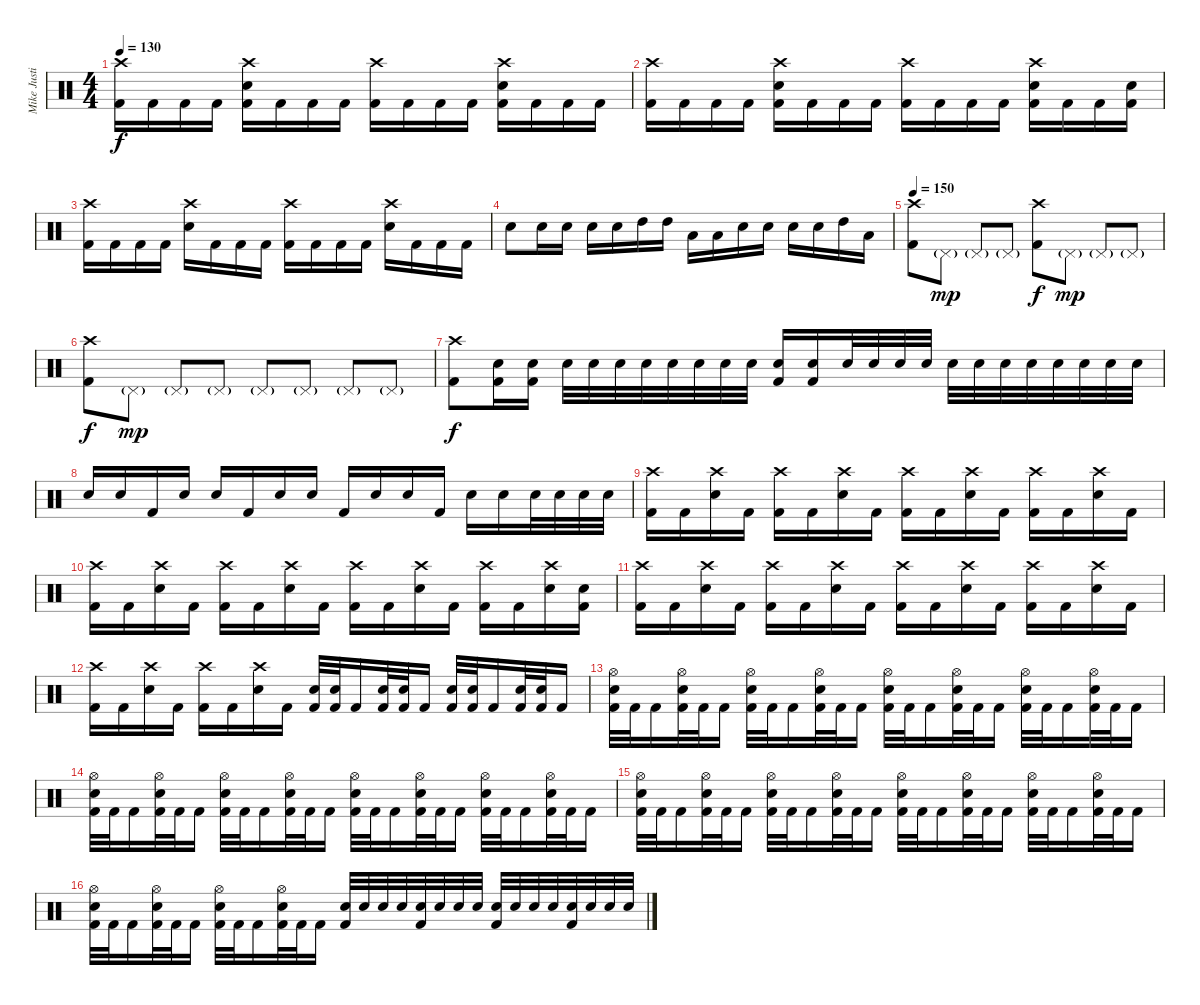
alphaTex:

\track ("Mike Justian" "Mike Justi") {instrument percussion}
\staff {score}
\articulation defaults
\ts (4 4)
\tempo 130
\clef neutral
\ks c
("Crash high (hit)" "Kick (hit) 2").16{dy f} "Kick (hit) 2".16 "Kick (hit) 2".16 "Kick (hit) 2".16 ("Crash high (hit)" "Electric Snare (hit)" "Kick (hit) 2").16 "Kick (hit) 2".16 "Kick (hit) 2".16 "Kick (hit) 2".16 ("Crash high (hit)" "Kick (hit) 2").16 "Kick (hit) 2".16 "Kick (hit) 2".16 "Kick (hit) 2".16 ("Crash high (hit)" "Electric Snare (hit)" "Kick (hit) 2").16 "Kick (hit) 2".16 "Kick (hit) 2".16 "Kick (hit) 2".16 |
("Crash high (hit)" "Kick (hit) 2").16 "Kick (hit) 2".16 "Kick (hit) 2".16 "Kick (hit) 2".16 ("Crash high (hit)" "Electric Snare (hit)" "Kick (hit) 2").16 "Kick (hit) 2".16 "Kick (hit) 2".16 "Kick (hit) 2".16 ("Crash high (hit)" "Kick (hit) 2").16 "Kick (hit) 2".16 "Kick (hit) 2".16 "Kick (hit) 2".16 ("Crash high (hit)" "Electric Snare (hit)" "Kick (hit) 2").16 "Kick (hit) 2".16 "Kick (hit) 2".16 ("Electric Snare (hit)" "Kick (hit) 2").16 |
("Crash high (hit)" "Kick (hit) 2").16 "Kick (hit) 2".16 "Kick (hit) 2".16 "Kick (hit) 2".16 ("Crash high (hit)" "Electric Snare (hit)").16 "Kick (hit) 2".16 "Kick (hit) 2".16 "Kick (hit) 2".16 ("Crash high (hit)" "Kick (hit) 2").16 "Kick (hit) 2".16 "Kick (hit) 2".16 "Kick (hit) 2".16 ("Crash high (hit)" "Electric Snare (hit)").16 "Kick (hit) 2".16 "Kick (hit) 2".16 "Kick (hit) 2".16 |
"Electric Snare (hit)".8 "Electric Snare (hit)".16 "Electric Snare (hit)".16 "Electric Snare (hit)".16 "Electric Snare (hit)".16 "High Tom (hit)".16 "High Tom (hit)".16 "Low Tom (hit)".16 "Low Tom (hit)".16 "Electric Snare (hit)".16 "Electric Snare (hit)".16 "Electric Snare (hit)".16 "Electric Snare (hit)".16 "High Tom (hit)".16 "Low Tom (hit)".16 |
\tempo 150
("Crash high (hit)" "Kick (hit) 2").8 "Pedal Hi-Hat (hit)"{g}.8{dy mp} "Pedal Hi-Hat (hit)"{g}.8 "Pedal Hi-Hat (hit)"{g}.8 ("Crash high (hit)" "Kick (hit) 2").8{dy f} "Pedal Hi-Hat (hit)"{g}.8{dy mp} "Pedal Hi-Hat (hit)"{g}.8 "Pedal Hi-Hat (hit)"{g}.8 |
("Crash high (hit)" "Kick (hit) 2").8{dy f} "Pedal Hi-Hat (hit)"{g}.8{dy mp} "Pedal Hi-Hat (hit)"{g}.8 "Pedal Hi-Hat (hit)"{g}.8 "Pedal Hi-Hat (hit)"{g}.8 "Pedal Hi-Hat (hit)"{g}.8 "Pedal Hi-Hat (hit)"{g}.8 "Pedal Hi-Hat (hit)"{g}.8 |
("Crash high (hit)" "Kick (hit) 2").8{dy f} ("Electric Snare (hit)" "Kick (hit) 2").16 ("Electric Snare (hit)" "Kick (hit) 2").16 "Electric Snare (hit)".32 "Electric Snare (hit)".32 "Electric Snare (hit)".32 "Electric Snare (hit)".32 "Electric Snare (hit)".32 "Electric Snare (hit)".32 "Electric Snare (hit)".32 "Electric Snare (hit)".32 ("Electric Snare (hit)" "Kick (hit) 2").16 ("Electric Snare (hit)" "Kick (hit) 2").16 "Electric Snare (hit)".32 "Electric Snare (hit)".32 "Electric Snare (hit)".32 "Electric Snare (hit)".32 "Electric Snare (hit)".32 "Electric Snare (hit)".32 "Electric Snare (hit)".32 "Electric Snare (hit)".32 "Electric Snare (hit)".32 "Electric Snare (hit)".32 "Electric Snare (hit)".32 "Electric Snare (hit)".32 |
"Electric Snare (hit)".16 "Electric Snare (hit)".16 "Kick (hit) 2".16 "Electric Snare (hit)".16 "Electric Snare (hit)".16 "Kick (hit) 2".16 "Electric Snare (hit)".16 "Electric Snare (hit)".16 "Kick (hit) 2".16 "Electric Snare (hit)".16 "Electric Snare (hit)".16 "Kick (hit) 2".16 "Electric Snare (hit)".16 "Electric Snare (hit)".16 "Electric Snare (hit)".32 "Electric Snare (hit)".32 "Electric Snare (hit)".32 "Electric Snare (hit)".32 |
("Crash high (hit)" "Kick (hit) 2").16 "Kick (hit) 2".16 ("Crash high (hit)" "Electric Snare (hit)").16 "Kick (hit) 2".16 ("Crash high (hit)" "Kick (hit) 2").16 "Kick (hit) 2".16 ("Crash high (hit)" "Electric Snare (hit)").16 "Kick (hit) 2".16 ("Crash high (hit)" "Kick (hit) 2").16 "Kick (hit) 2".16 ("Crash high (hit)" "Electric Snare (hit)").16 "Kick (hit) 2".16 ("Crash high (hit)" "Kick (hit) 2").16 "Kick (hit) 2".16 ("Crash high (hit)" "Electric Snare (hit)").16 "Kick (hit) 2".16 |
("Crash high (hit)" "Kick (hit) 2").16 "Kick (hit) 2".16 ("Crash high (hit)" "Electric Snare (hit)").16 "Kick (hit) 2".16 ("Crash high (hit)" "Kick (hit) 2").16 "Kick (hit) 2".16 ("Crash high (hit)" "Electric Snare (hit)").16 "Kick (hit) 2".16 ("Crash high (hit)" "Kick (hit) 2").16 "Kick (hit) 2".16 ("Crash high (hit)" "Electric Snare (hit)").16 "Kick (hit) 2".16 ("Crash high (hit)" "Kick (hit) 2").16 "Kick (hit) 2".16 ("Crash high (hit)" "Electric Snare (hit)").16 ("Electric Snare (hit)" "Kick (hit) 2").16 |
("Crash high (hit)" "Kick (hit) 2").16 "Kick (hit) 2".16 ("Crash high (hit)" "Electric Snare (hit)").16 "Kick (hit) 2".16 ("Crash high (hit)" "Kick (hit) 2").16 "Kick (hit) 2".16 ("Crash high (hit)" "Electric Snare (hit)").16 "Kick (hit) 2".16 ("Crash high (hit)" "Kick (hit) 2").16 "Kick (hit) 2".16 ("Crash high (hit)" "Electric Snare (hit)").16 "Kick (hit) 2".16 ("Crash high (hit)" "Kick (hit) 2").16 "Kick (hit) 2".16 ("Crash high (hit)" "Electric Snare (hit)").16 "Kick (hit) 2".16 |
("Crash high (hit)" "Kick (hit) 2").16 "Kick (hit) 2".16 ("Crash high (hit)" "Electric Snare (hit)").16 "Kick (hit) 2".16 ("Crash high (hit)" "Kick (hit) 2").16 "Kick (hit) 2".16 ("Crash high (hit)" "Electric Snare (hit)").16 "Kick (hit) 2".16 ("Electric Snare (hit)" "Kick (hit) 2").32 ("Electric Snare (hit)" "Kick (hit) 2").32 "Kick (hit) 2".16 ("Electric Snare (hit)" "Kick (hit) 2").32 ("Electric Snare (hit)" "Kick (hit) 2").32 "Kick (hit) 2".16 ("Electric Snare (hit)" "Kick (hit) 2").32 ("Electric Snare (hit)" "Kick (hit) 2").32 "Kick (hit) 2".16 ("Electric Snare (hit)" "Kick (hit) 2").32 ("Electric Snare (hit)" "Kick (hit) 2").32 "Kick (hit) 2".16 |
("Hi-Hat (open)" "Electric Snare (hit)" "Kick (hit) 2").32 "Kick (hit) 2".32 "Kick (hit) 2".16 ("Hi-Hat (open)" "Electric Snare (hit)" "Kick (hit) 2").32 "Kick (hit) 2".32 "Kick (hit) 2".16 ("Hi-Hat (open)" "Electric Snare (hit)" "Kick (hit) 2").32 "Kick (hit) 2".32 "Kick (hit) 2".16 ("Hi-Hat (open)" "Electric Snare (hit)" "Kick (hit) 2").32 "Kick (hit) 2".32 "Kick (hit) 2".16 ("Hi-Hat (open)" "Electric Snare (hit)" "Kick (hit) 2").32 "Kick (hit) 2".32 "Kick (hit) 2".16 ("Hi-Hat (open)" "Electric Snare (hit)" "Kick (hit) 2").32 "Kick (hit) 2".32 "Kick (hit) 2".16 ("Hi-Hat (open)" "Electric Snare (hit)" "Kick (hit) 2").32 "Kick (hit) 2".32 "Kick (hit) 2".16 ("Hi-Hat (open)" "Electric Snare (hit)" "Kick (hit) 2").32 "Kick (hit) 2".32 "Kick (hit) 2".16 |
("Hi-Hat (open)" "Electric Snare (hit)" "Kick (hit) 2").32 "Kick (hit) 2".32 "Kick (hit) 2".16 ("Hi-Hat (open)" "Electric Snare (hit)" "Kick (hit) 2").32 "Kick (hit) 2".32 "Kick (hit) 2".16 ("Hi-Hat (open)" "Electric Snare (hit)" "Kick (hit) 2").32 "Kick (hit) 2".32 "Kick (hit) 2".16 ("Hi-Hat (open)" "Electric Snare (hit)" "Kick (hit) 2").32 "Kick (hit) 2".32 "Kick (hit) 2".16 ("Hi-Hat (open)" "Electric Snare (hit)" "Kick (hit) 2").32 "Kick (hit) 2".32 "Kick (hit) 2".16 ("Hi-Hat (open)" "Electric Snare (hit)" "Kick (hit) 2").32 "Kick (hit) 2".32 "Kick (hit) 2".16 ("Hi-Hat (open)" "Electric Snare (hit)" "Kick (hit) 2").32 "Kick (hit) 2".32 "Kick (hit) 2".16 ("Hi-Hat (open)" "Electric Snare (hit)" "Kick (hit) 2").32 "Kick (hit) 2".32 "Kick (hit) 2".16 |
("Hi-Hat (open)" "Electric Snare (hit)" "Kick (hit) 2").32 "Kick (hit) 2".32 "Kick (hit) 2".16 ("Hi-Hat (open)" "Electric Snare (hit)" "Kick (hit) 2").32 "Kick (hit) 2".32 "Kick (hit) 2".16 ("Hi-Hat (open)" "Electric Snare (hit)" "Kick (hit) 2").32 "Kick (hit) 2".32 "Kick (hit) 2".16 ("Hi-Hat (open)" "Electric Snare (hit)" "Kick (hit) 2").32 "Kick (hit) 2".32 "Kick (hit) 2".16 ("Hi-Hat (open)" "Electric Snare (hit)" "Kick (hit) 2").32 "Kick (hit) 2".32 "Kick (hit) 2".16 ("Hi-Hat (open)" "Electric Snare (hit)" "Kick (hit) 2").32 "Kick (hit) 2".32 "Kick (hit) 2".16 ("Hi-Hat (open)" "Electric Snare (hit)" "Kick (hit) 2").32 "Kick (hit) 2".32 "Kick (hit) 2".16 ("Hi-Hat (open)" "Electric Snare (hit)" "Kick (hit) 2").32 "Kick (hit) 2".32 "Kick (hit) 2".16 |
("Hi-Hat (open)" "Electric Snare (hit)" "Kick (hit) 2").32 "Kick (hit) 2".32 "Kick (hit) 2".16 ("Hi-Hat (open)" "Electric Snare (hit)" "Kick (hit) 2").32 "Kick (hit) 2".32 "Kick (hit) 2".16 ("Hi-Hat (open)" "Electric Snare (hit)" "Kick (hit) 2").32 "Kick (hit) 2".32 "Kick (hit) 2".16 ("Hi-Hat (open)" "Electric Snare (hit)" "Kick (hit) 2").32 "Kick (hit) 2".32 "Kick (hit) 2".16 ("Electric Snare (hit)" "Kick (hit) 2").32 "Electric Snare (hit)".32 "Electric Snare (hit)".32 "Electric Snare (hit)".32 ("Electric Snare (hit)" "Kick (hit) 2").32 "Electric Snare (hit)".32 "Electric Snare (hit)".32 "Electric Snare (hit)".32 ("Electric Snare (hit)" "Kick (hit) 2").32 "Electric Snare (hit)".32 "Electric Snare (hit)".32 "Electric Snare (hit)".32 ("Electric Snare (hit)" "Kick (hit) 2").32 "Electric Snare (hit)".32 "Electric Snare (hit)".32 "Electric Snare (hit)".32
